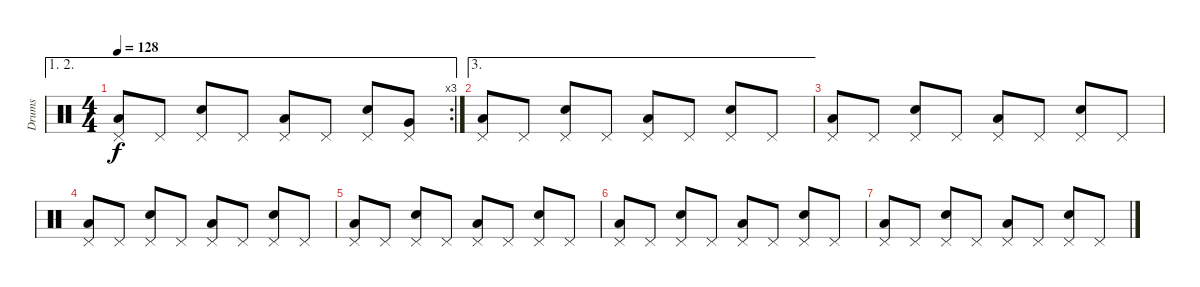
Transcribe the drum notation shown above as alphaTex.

\track ("Drums" "Drums") {instrument percussion}
\staff {score}
\articulation defaults
\ae (1 2)
\rc 3
\ts (4 4)
\tempo 128
\clef neutral
\ks c
("Pedal Hi-Hat (hit)" "Low Floor Tom (hit)").8{dy f} "Pedal Hi-Hat (hit)".8 ("Pedal Hi-Hat (hit)" "Electric Snare (hit)").8 "Pedal Hi-Hat (hit)".8 ("Pedal Hi-Hat (hit)" "Low Floor Tom (hit)").8 "Pedal Hi-Hat (hit)".8 ("Pedal Hi-Hat (hit)" "Electric Snare (hit)").8 ("Pedal Hi-Hat (hit)" "Very Low Tom (hit)").8 |
\ae 3
("Pedal Hi-Hat (hit)" "Low Floor Tom (hit)").8 "Pedal Hi-Hat (hit)".8 ("Pedal Hi-Hat (hit)" "Electric Snare (hit)").8 "Pedal Hi-Hat (hit)".8 ("Pedal Hi-Hat (hit)" "Low Floor Tom (hit)").8 "Pedal Hi-Hat (hit)".8 ("Pedal Hi-Hat (hit)" "Electric Snare (hit)").8 "Pedal Hi-Hat (hit)".8 |
("Pedal Hi-Hat (hit)" "Low Floor Tom (hit)").8 "Pedal Hi-Hat (hit)".8 ("Pedal Hi-Hat (hit)" "Electric Snare (hit)").8 "Pedal Hi-Hat (hit)".8 ("Pedal Hi-Hat (hit)" "Low Floor Tom (hit)").8 "Pedal Hi-Hat (hit)".8 ("Pedal Hi-Hat (hit)" "Electric Snare (hit)").8 "Pedal Hi-Hat (hit)".8 |
("Pedal Hi-Hat (hit)" "Low Floor Tom (hit)").8 "Pedal Hi-Hat (hit)".8 ("Pedal Hi-Hat (hit)" "Electric Snare (hit)").8 "Pedal Hi-Hat (hit)".8 ("Pedal Hi-Hat (hit)" "Low Floor Tom (hit)").8 "Pedal Hi-Hat (hit)".8 ("Pedal Hi-Hat (hit)" "Electric Snare (hit)").8 "Pedal Hi-Hat (hit)".8 |
("Pedal Hi-Hat (hit)" "Low Floor Tom (hit)").8 "Pedal Hi-Hat (hit)".8 ("Pedal Hi-Hat (hit)" "Electric Snare (hit)").8 "Pedal Hi-Hat (hit)".8 ("Pedal Hi-Hat (hit)" "Low Floor Tom (hit)").8 "Pedal Hi-Hat (hit)".8 ("Pedal Hi-Hat (hit)" "Electric Snare (hit)").8 "Pedal Hi-Hat (hit)".8 |
("Pedal Hi-Hat (hit)" "Low Floor Tom (hit)").8 "Pedal Hi-Hat (hit)".8 ("Pedal Hi-Hat (hit)" "Electric Snare (hit)").8 "Pedal Hi-Hat (hit)".8 ("Pedal Hi-Hat (hit)" "Low Floor Tom (hit)").8 "Pedal Hi-Hat (hit)".8 ("Pedal Hi-Hat (hit)" "Electric Snare (hit)").8 "Pedal Hi-Hat (hit)".8 |
("Pedal Hi-Hat (hit)" "Low Floor Tom (hit)").8 "Pedal Hi-Hat (hit)".8 ("Pedal Hi-Hat (hit)" "Electric Snare (hit)").8 "Pedal Hi-Hat (hit)".8 ("Pedal Hi-Hat (hit)" "Low Floor Tom (hit)").8 "Pedal Hi-Hat (hit)".8 ("Pedal Hi-Hat (hit)" "Electric Snare (hit)").8 "Pedal Hi-Hat (hit)".8
